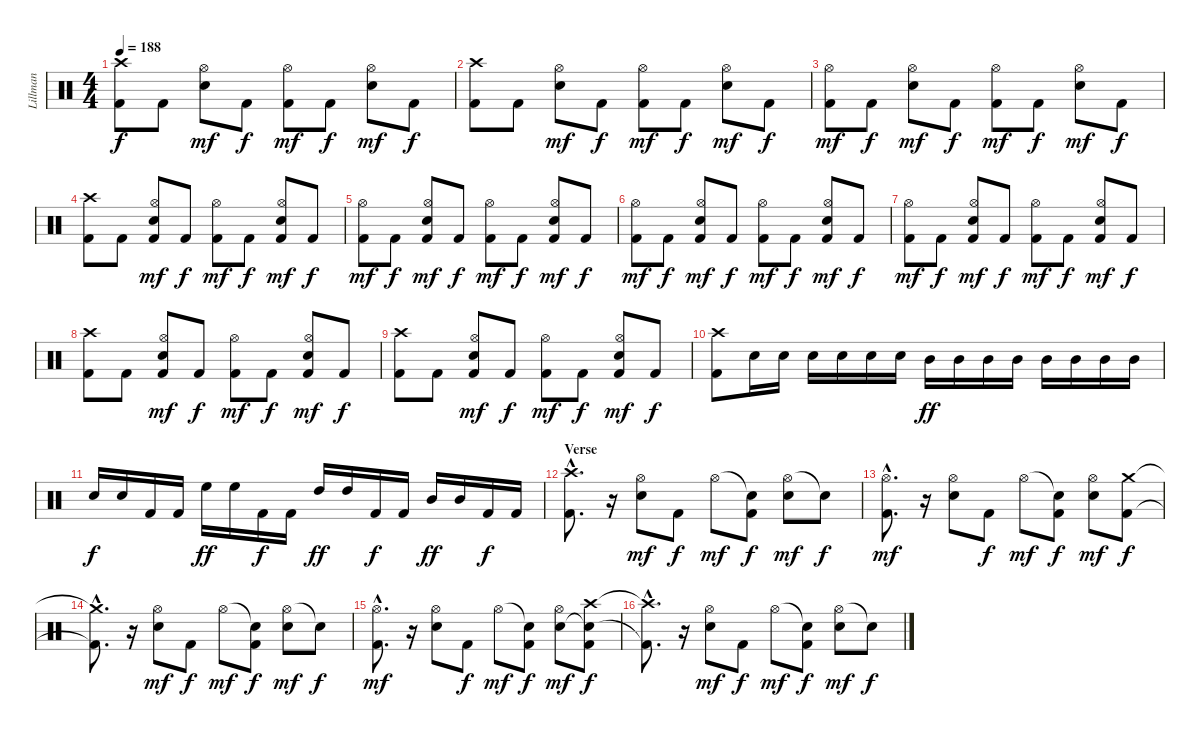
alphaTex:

\track ("Lillman" "Lillman") {instrument percussion}
\staff {score}
\articulation defaults
\ts (4 4)
\tempo 188
\clef neutral
\ks c
("Crash high (hit)" "Kick (hit) 2").8{dy f} "Kick (hit) 2".8 ("Hi-Hat (open)" "Snare (hit) 2").8{dy mf} "Kick (hit) 2".8{dy f} ("Hi-Hat (open)" "Kick (hit) 2").8{dy mf} "Kick (hit) 2".8{dy f} ("Hi-Hat (open)" "Snare (hit) 2").8{dy mf} "Kick (hit) 2".8{dy f} |
("Crash high (hit)" "Kick (hit) 2").8 "Kick (hit) 2".8 ("Hi-Hat (open)" "Snare (hit) 2").8{dy mf} "Kick (hit) 2".8{dy f} ("Hi-Hat (open)" "Kick (hit) 2").8{dy mf} "Kick (hit) 2".8{dy f} ("Hi-Hat (open)" "Snare (hit) 2").8{dy mf} "Kick (hit) 2".8{dy f} |
("Hi-Hat (open)" "Kick (hit) 2").8{dy mf} "Kick (hit) 2".8{dy f} ("Hi-Hat (open)" "Snare (hit) 2").8{dy mf} "Kick (hit) 2".8{dy f} ("Hi-Hat (open)" "Kick (hit) 2").8{dy mf} "Kick (hit) 2".8{dy f} ("Hi-Hat (open)" "Snare (hit) 2").8{dy mf} "Kick (hit) 2".8{dy f} |
("Crash high (hit)" "Kick (hit) 2").8 "Kick (hit) 2".8 ("Hi-Hat (open)" "Snare (hit) 2" "Kick (hit) 2").8{dy mf} "Kick (hit) 2".8{dy f} ("Hi-Hat (open)" "Kick (hit) 2").8{dy mf} "Kick (hit) 2".8{dy f} ("Hi-Hat (open)" "Snare (hit) 2" "Kick (hit) 2").8{dy mf} "Kick (hit) 2".8{dy f} |
("Hi-Hat (open)" "Kick (hit) 2").8{dy mf} "Kick (hit) 2".8{dy f} ("Hi-Hat (open)" "Snare (hit) 2" "Kick (hit) 2").8{dy mf} "Kick (hit) 2".8{dy f} ("Hi-Hat (open)" "Kick (hit) 2").8{dy mf} "Kick (hit) 2".8{dy f} ("Hi-Hat (open)" "Snare (hit) 2" "Kick (hit) 2").8{dy mf} "Kick (hit) 2".8{dy f} |
("Hi-Hat (open)" "Kick (hit) 2").8{dy mf} "Kick (hit) 2".8{dy f} ("Hi-Hat (open)" "Snare (hit) 2" "Kick (hit) 2").8{dy mf} "Kick (hit) 2".8{dy f} ("Hi-Hat (open)" "Kick (hit) 2").8{dy mf} "Kick (hit) 2".8{dy f} ("Hi-Hat (open)" "Snare (hit) 2" "Kick (hit) 2").8{dy mf} "Kick (hit) 2".8{dy f} |
("Hi-Hat (open)" "Kick (hit) 2").8{dy mf} "Kick (hit) 2".8{dy f} ("Hi-Hat (open)" "Snare (hit) 2" "Kick (hit) 2").8{dy mf} "Kick (hit) 2".8{dy f} ("Hi-Hat (open)" "Kick (hit) 2").8{dy mf} "Kick (hit) 2".8{dy f} ("Hi-Hat (open)" "Snare (hit) 2" "Kick (hit) 2").8{dy mf} "Kick (hit) 2".8{dy f} |
("Crash high (hit)" "Kick (hit) 2").8 "Kick (hit) 2".8 ("Hi-Hat (open)" "Snare (hit) 2" "Kick (hit) 2").8{dy mf} "Kick (hit) 2".8{dy f} ("Hi-Hat (open)" "Kick (hit) 2").8{dy mf} "Kick (hit) 2".8{dy f} ("Hi-Hat (open)" "Snare (hit) 2" "Kick (hit) 2").8{dy mf} "Kick (hit) 2".8{dy f} |
("Crash high (hit)" "Kick (hit) 2").8 "Kick (hit) 2".8 ("Hi-Hat (open)" "Snare (hit) 2" "Kick (hit) 2").8{dy mf} "Kick (hit) 2".8{dy f} ("Hi-Hat (open)" "Kick (hit) 2").8{dy mf} "Kick (hit) 2".8{dy f} ("Hi-Hat (open)" "Snare (hit) 2" "Kick (hit) 2").8{dy mf} "Kick (hit) 2".8{dy f} |
("Crash high (hit)" "Kick (hit) 2").8 "Snare (hit) 2".16 "Snare (hit) 2".16 "Snare (hit) 2".16 "Snare (hit) 2".16 "Snare (hit) 2".16 "Snare (hit) 2".16 "Mid Tom (hit)".16{dy ff} "Mid Tom (hit)".16 "Mid Tom (hit)".16 "Mid Tom (hit)".16 "Mid Tom (hit)".16 "Mid Tom (hit)".16 "Mid Tom (hit)".16 "Mid Tom (hit)".16 |
"Snare (hit) 2".16{dy f} "Snare (hit) 2".16 "Kick (hit) 2".16 "Kick (hit) 2".16 "High Floor Tom (hit)".16{dy ff} "High Floor Tom (hit)".16 "Kick (hit) 2".16{dy f} "Kick (hit) 2".16 "High Tom (hit)".16{dy ff} "High Tom (hit)".16 "Kick (hit) 2".16{dy f} "Kick (hit) 2".16 "Mid Tom (hit)".16{dy ff} "Mid Tom (hit)".16 "Kick (hit) 2".16{dy f} "Kick (hit) 2".16 |
\section ("" "Verse")
("Crash high (hit)"{hac} "Kick (hit) 2"{hac}).8{d} r.16 ("Hi-Hat (open)" "Snare (hit) 2").8{dy mf} "Kick (hit) 2".8{dy f} "Hi-Hat (open)".8{dy mf} ("Snare (hit)"{t} "Kick (hit) 2").8{dy f} ("Hi-Hat (open)" "Snare (hit) 2").8{dy mf} "Snare (hit)"{t}.8{dy f} |
("Hi-Hat (open)"{hac} "Kick (hit) 2"{hac}).8{d dy mf} r.16 ("Hi-Hat (open)" "Snare (hit) 2").8 "Kick (hit) 2".8{dy f} "Hi-Hat (open)".8{dy mf} ("Snare (hit)"{t} "Kick (hit) 2").8{dy f} ("Hi-Hat (open)" "Snare (hit) 2").8{dy mf} ("Crash medium (hit)" "Kick (hit) 2").8{dy f} |
("Crash medium (hit)"{hac t} "Kick (hit) 2"{hac t}).8{d} r.16 ("Hi-Hat (open)" "Snare (hit) 2").8{dy mf} "Kick (hit) 2".8{dy f} "Hi-Hat (open)".8{dy mf} ("Snare (hit)"{t} "Kick (hit) 2").8{dy f} ("Hi-Hat (open)" "Snare (hit) 2").8{dy mf} "Snare (hit)"{t}.8{dy f} |
("Hi-Hat (open)"{hac} "Kick (hit) 2"{hac}).8{d dy mf} r.16 ("Hi-Hat (open)" "Snare (hit) 2").8 "Kick (hit) 2".8{dy f} "Hi-Hat (open)".8{dy mf} ("Snare (hit)"{t} "Kick (hit) 2").8{dy f} ("Hi-Hat (open)" "Snare (hit) 2").8{dy mf} ("Crash high (hit)" "Snare (hit)"{t} "Kick (hit) 2").8{dy f} |
("Crash high (hit)"{hac t} "Kick (hit) 2"{hac t}).8{d} r.16 ("Hi-Hat (open)" "Snare (hit) 2").8{dy mf} "Kick (hit) 2".8{dy f} "Hi-Hat (open)".8{dy mf} ("Snare (hit)"{t} "Kick (hit) 2").8{dy f} ("Hi-Hat (open)" "Snare (hit) 2").8{dy mf} "Snare (hit)"{t}.8{dy f}
